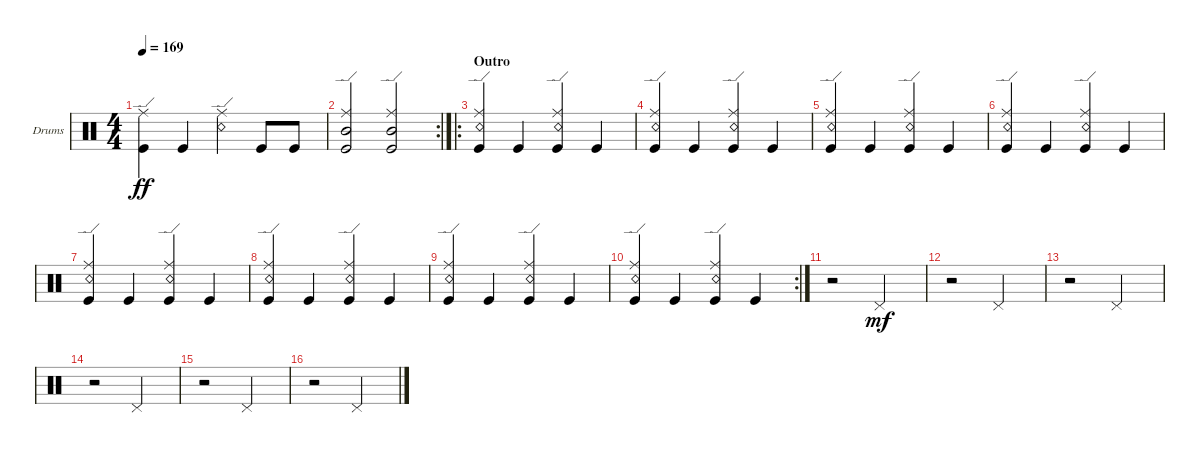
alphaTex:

\bracketExtendMode groupsimilarinstruments
\firstSystemTrackNameOrientation horizontal
\otherSystemsTrackNameOrientation horizontal
\track ("Drumkit" "Drums") {instrument percussion}
\staff {score}
\articulation defaults
\ts (4 4)
\tempo 169
\clef neutral
\ks c
("Kick (hit)" "Ride (edge)").4{dy ff} "Kick (hit)".4 ("Snare (rim shot)" "Ride (edge)").4 "Kick (hit)".8 "Kick (hit)".8 |
\rc 2
("Kick (hit)" "Mid Tom (hit)" "Ride (edge)").2 ("Kick (hit)" "Mid Tom (hit)" "Ride (edge)").2 |
\ro
\section ("" "Outro")
("Snare (rim shot)" "Kick (hit)" "Ride (edge)").4 "Kick (hit)".4 ("Snare (rim shot)" "Kick (hit)" "Ride (edge)").4 "Kick (hit)".4 |
("Snare (rim shot)" "Kick (hit)" "Ride (edge)").4 "Kick (hit)".4 ("Snare (rim shot)" "Kick (hit)" "Ride (edge)").4 "Kick (hit)".4 |
("Snare (rim shot)" "Kick (hit)" "Ride (edge)").4 "Kick (hit)".4 ("Snare (rim shot)" "Kick (hit)" "Ride (edge)").4 "Kick (hit)".4 |
("Snare (rim shot)" "Kick (hit)" "Ride (edge)").4 "Kick (hit)".4 ("Snare (rim shot)" "Kick (hit)" "Ride (edge)").4 "Kick (hit)".4 |
("Snare (rim shot)" "Kick (hit)" "Ride (edge)").4 "Kick (hit)".4 ("Snare (rim shot)" "Kick (hit)" "Ride (edge)").4 "Kick (hit)".4 |
("Snare (rim shot)" "Kick (hit)" "Ride (edge)").4 "Kick (hit)".4 ("Snare (rim shot)" "Kick (hit)" "Ride (edge)").4 "Kick (hit)".4 |
("Snare (rim shot)" "Kick (hit)" "Ride (edge)").4 "Kick (hit)".4 ("Snare (rim shot)" "Kick (hit)" "Ride (edge)").4 "Kick (hit)".4 |
\rc 2
("Snare (rim shot)" "Kick (hit)" "Ride (edge)").4 "Kick (hit)".4 ("Snare (rim shot)" "Kick (hit)" "Ride (edge)").4 "Kick (hit)".4 |
r.2 "Pedal Hi-Hat (hit)".2{dy mf} |
r.2 "Pedal Hi-Hat (hit)".2 |
r.2 "Pedal Hi-Hat (hit)".2 |
r.2 "Pedal Hi-Hat (hit)".2 |
r.2 "Pedal Hi-Hat (hit)".2 |
r.2 "Pedal Hi-Hat (hit)".2
